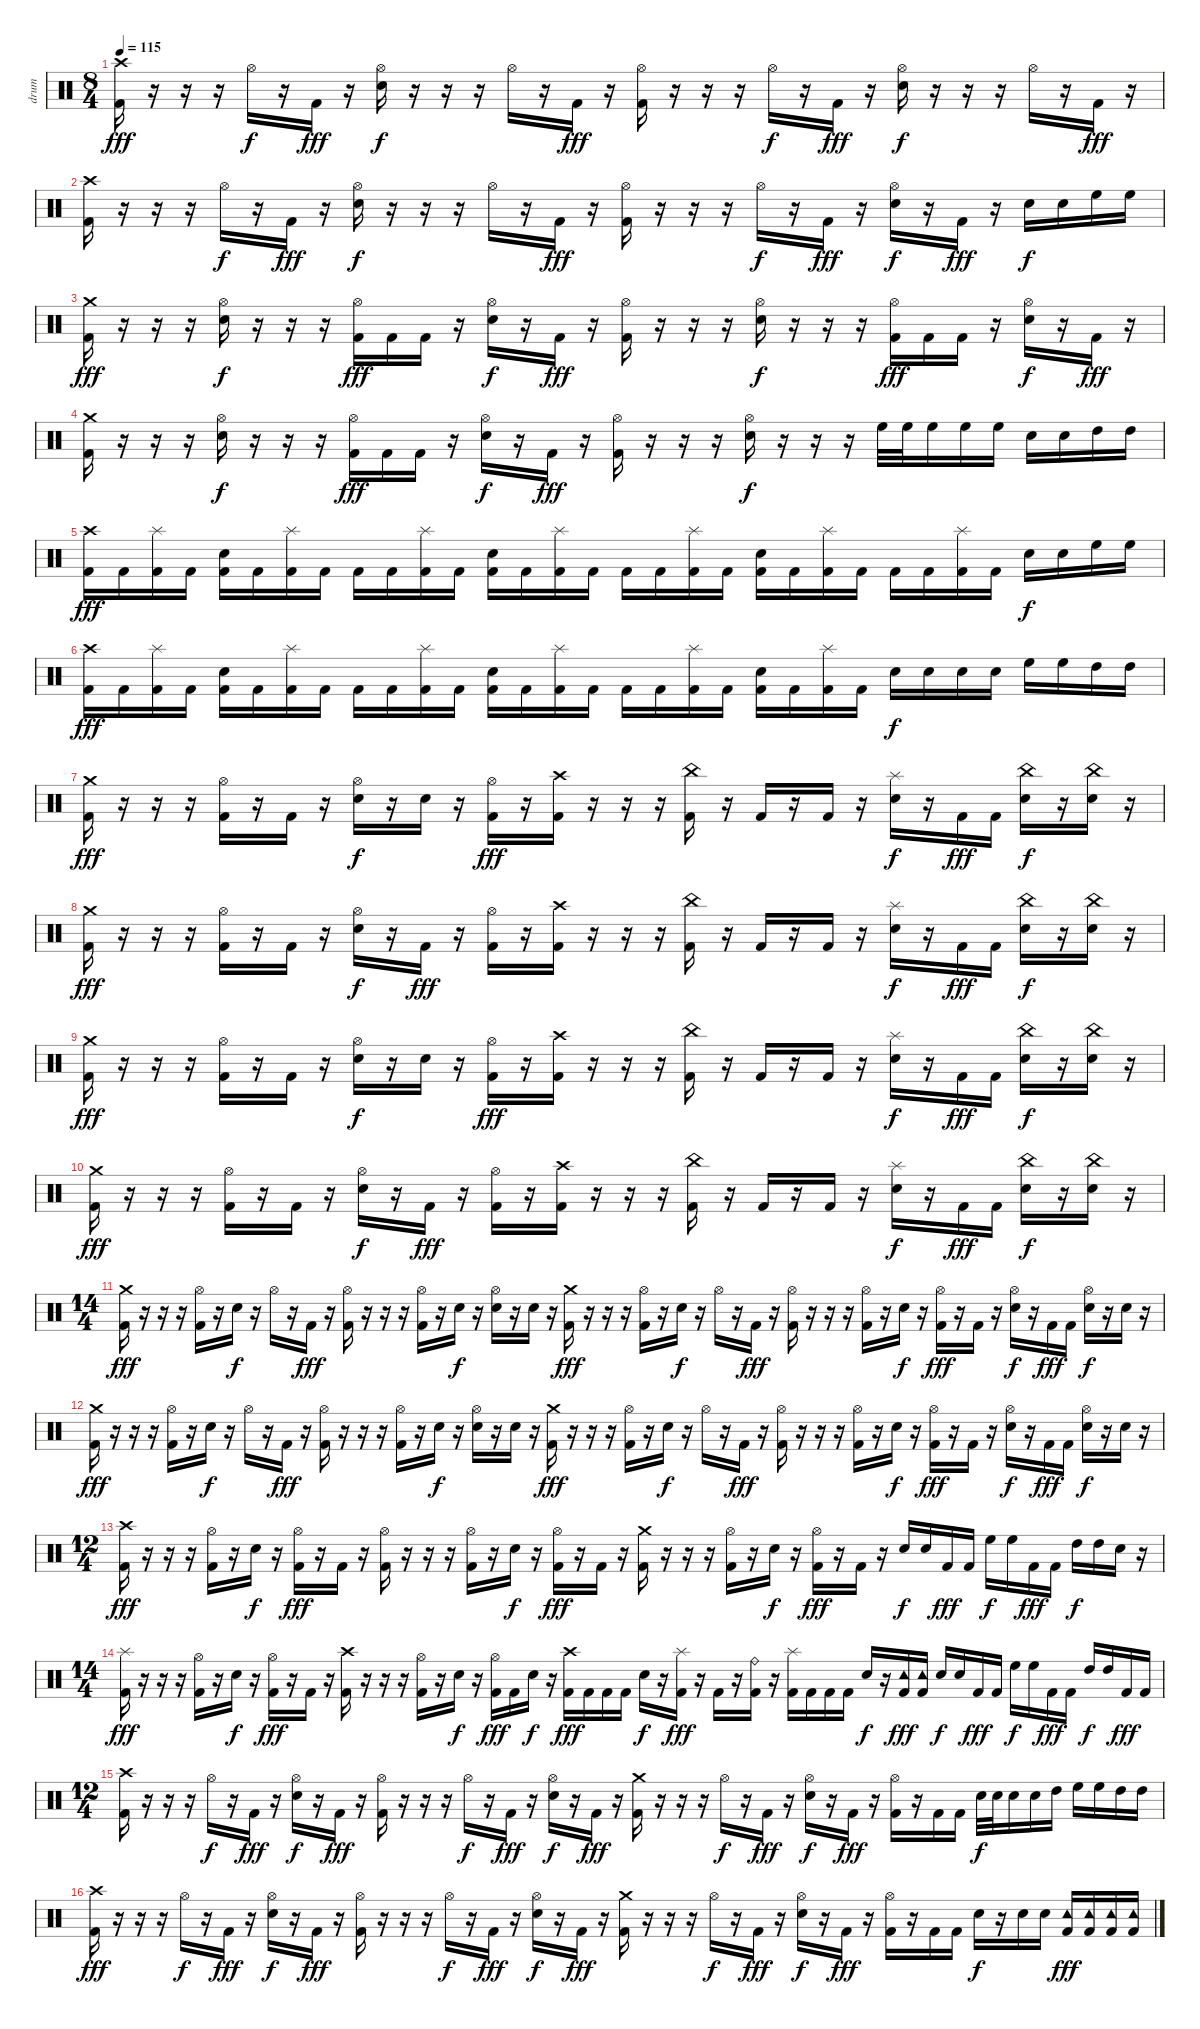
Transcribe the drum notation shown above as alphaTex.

\track ("drum" "drum") {instrument percussion}
\staff {score}
\articulation defaults
\ts (8 4)
\tempo 115
\clef neutral
\ks c
("Crash high (hit)" "Kick (hit) 2").16{dy fff} r.16 r.16 r.16 "Hi-Hat (open)".16{dy f} r.16 "Kick (hit) 2".16{dy fff} r.16 ("Hi-Hat (open)" "Electric Snare (hit)").16{dy f} r.16 r.16 r.16 "Hi-Hat (open)".16 r.16 "Kick (hit) 2".16{dy fff} r.16 ("Hi-Hat (open)" "Kick (hit) 2").16 r.16 r.16 r.16 "Hi-Hat (open)".16{dy f} r.16 "Kick (hit) 2".16{dy fff} r.16 ("Hi-Hat (open)" "Electric Snare (hit)").16{dy f} r.16 r.16 r.16 "Hi-Hat (open)".16 r.16 "Kick (hit) 2".16{dy fff} r.16 |
("Crash high (hit)" "Kick (hit) 2").16 r.16 r.16 r.16 "Hi-Hat (open)".16{dy f} r.16 "Kick (hit) 2".16{dy fff} r.16 ("Hi-Hat (open)" "Electric Snare (hit)").16{dy f} r.16 r.16 r.16 "Hi-Hat (open)".16 r.16 "Kick (hit) 2".16{dy fff} r.16 ("Hi-Hat (open)" "Kick (hit) 2").16 r.16 r.16 r.16 "Hi-Hat (open)".16{dy f} r.16 "Kick (hit) 2".16{dy fff} r.16 ("Hi-Hat (open)" "Electric Snare (hit)").16{dy f} r.16 "Kick (hit) 2".16{dy fff} r.16 "Electric Snare (hit)".16{dy f} "Electric Snare (hit)".16 "High Floor Tom (hit)".16 "High Floor Tom (hit)".16 |
("Crash medium (hit)" "Kick (hit) 2").16{dy fff} r.16 r.16 r.16 ("Hi-Hat (open)" "Electric Snare (hit)").16{dy f} r.16 r.16 r.16 ("Hi-Hat (open)" "Kick (hit) 2").16{dy fff} "Kick (hit) 2".16 "Kick (hit) 2".16 r.16 ("Hi-Hat (open)" "Electric Snare (hit)").16{dy f} r.16 "Kick (hit) 2".16{dy fff} r.16 ("Hi-Hat (open)" "Kick (hit) 2").16 r.16 r.16 r.16 ("Hi-Hat (open)" "Electric Snare (hit)").16{dy f} r.16 r.16 r.16 ("Hi-Hat (open)" "Kick (hit) 2").16{dy fff} "Kick (hit) 2".16 "Kick (hit) 2".16 r.16 ("Hi-Hat (open)" "Electric Snare (hit)").16{dy f} r.16 "Kick (hit) 2".16{dy fff} r.16 |
("Crash medium (hit)" "Kick (hit) 2").16 r.16 r.16 r.16 ("Hi-Hat (open)" "Electric Snare (hit)").16{dy f} r.16 r.16 r.16 ("Hi-Hat (open)" "Kick (hit) 2").16{dy fff} "Kick (hit) 2".16 "Kick (hit) 2".16 r.16 ("Hi-Hat (open)" "Electric Snare (hit)").16{dy f} r.16 "Kick (hit) 2".16{dy fff} r.16 ("Hi-Hat (open)" "Kick (hit) 2").16 r.16 r.16 r.16 ("Hi-Hat (open)" "Electric Snare (hit)").16{dy f} r.16 r.16 r.16 "High Floor Tom (hit)".32 "High Floor Tom (hit)".32 "High Floor Tom (hit)".16 "High Floor Tom (hit)".16 "High Floor Tom (hit)".16 "Electric Snare (hit)".16 "Electric Snare (hit)".16 "High Tom (hit)".16 "High Tom (hit)".16 |
("Crash high (hit)" "Kick (hit) 2").16{dy fff} "Kick (hit) 2".16 ("Splash (hit)" "Kick (hit) 2").16 "Kick (hit) 2".16 ("Electric Snare (hit)" "Kick (hit) 2").16 "Kick (hit) 2".16 ("Splash (hit)" "Kick (hit) 2").16 "Kick (hit) 2".16 "Kick (hit) 2".16 "Kick (hit) 2".16 ("Splash (hit)" "Kick (hit) 2").16 "Kick (hit) 2".16 ("Electric Snare (hit)" "Kick (hit) 2").16 "Kick (hit) 2".16 ("Splash (hit)" "Kick (hit) 2").16 "Kick (hit) 2".16 "Kick (hit) 2".16 "Kick (hit) 2".16 ("Splash (hit)" "Kick (hit) 2").16 "Kick (hit) 2".16 ("Electric Snare (hit)" "Kick (hit) 2").16 "Kick (hit) 2".16 ("Splash (hit)" "Kick (hit) 2").16 "Kick (hit) 2".16 "Kick (hit) 2".16 "Kick (hit) 2".16 ("Splash (hit)" "Kick (hit) 2").16 "Kick (hit) 2".16 "Electric Snare (hit)".16{dy f} "Electric Snare (hit)".16 "High Floor Tom (hit)".16 "High Floor Tom (hit)".16 |
("Crash high (hit)" "Kick (hit) 2").16{dy fff} "Kick (hit) 2".16 ("Splash (hit)" "Kick (hit) 2").16 "Kick (hit) 2".16 ("Electric Snare (hit)" "Kick (hit) 2").16 "Kick (hit) 2".16 ("Splash (hit)" "Kick (hit) 2").16 "Kick (hit) 2".16 "Kick (hit) 2".16 "Kick (hit) 2".16 ("Splash (hit)" "Kick (hit) 2").16 "Kick (hit) 2".16 ("Electric Snare (hit)" "Kick (hit) 2").16 "Kick (hit) 2".16 ("Splash (hit)" "Kick (hit) 2").16 "Kick (hit) 2".16 "Kick (hit) 2".16 "Kick (hit) 2".16 ("Splash (hit)" "Kick (hit) 2").16 "Kick (hit) 2".16 ("Electric Snare (hit)" "Kick (hit) 2").16 "Kick (hit) 2".16 ("Splash (hit)" "Kick (hit) 2").16 "Kick (hit) 2".16 "Electric Snare (hit)".16{dy f} "Electric Snare (hit)".16 "Electric Snare (hit)".16 "Electric Snare (hit)".16 "High Floor Tom (hit)".16 "High Floor Tom (hit)".16 "High Tom (hit)".16 "High Tom (hit)".16 |
("Crash medium (hit)" "Kick (hit) 2").16{dy fff} r.16 r.16 r.16 ("Hi-Hat (open)" "Kick (hit) 2").16 r.16 "Kick (hit) 2".16 r.16 ("Hi-Hat (open)" "Electric Snare (hit)").16{dy f} r.16 "Electric Snare (hit)".16 r.16 ("Hi-Hat (open)" "Kick (hit) 2").16{dy fff} r.16 ("Crash high (hit)" "Kick (hit) 2").16 r.16 r.16 r.16 ("China (hit)" "Kick (hit) 2").16 r.16 "Kick (hit) 2".16 r.16 "Kick (hit) 2".16 r.16 ("Splash (hit)" "Electric Snare (hit)").16{dy f} r.16 "Kick (hit) 2".16{dy fff} "Kick (hit) 2".16 ("China (hit)" "Electric Snare (hit)").16{dy f} r.16 ("China (hit)" "Electric Snare (hit)").16 r.16 |
("Crash medium (hit)" "Kick (hit) 2").16{dy fff} r.16 r.16 r.16 ("Hi-Hat (open)" "Kick (hit) 2").16 r.16 "Kick (hit) 2".16 r.16 ("Hi-Hat (open)" "Electric Snare (hit)").16{dy f} r.16 "Kick (hit) 2".16{dy fff} r.16 ("Hi-Hat (open)" "Kick (hit) 2").16 r.16 ("Crash high (hit)" "Kick (hit) 2").16 r.16 r.16 r.16 ("China (hit)" "Kick (hit) 2").16 r.16 "Kick (hit) 2".16 r.16 "Kick (hit) 2".16 r.16 ("Splash (hit)" "Electric Snare (hit)").16{dy f} r.16 "Kick (hit) 2".16{dy fff} "Kick (hit) 2".16 ("China (hit)" "Electric Snare (hit)").16{dy f} r.16 ("China (hit)" "Electric Snare (hit)").16 r.16 |
("Crash medium (hit)" "Kick (hit) 2").16{dy fff} r.16 r.16 r.16 ("Hi-Hat (open)" "Kick (hit) 2").16 r.16 "Kick (hit) 2".16 r.16 ("Hi-Hat (open)" "Electric Snare (hit)").16{dy f} r.16 "Electric Snare (hit)".16 r.16 ("Hi-Hat (open)" "Kick (hit) 2").16{dy fff} r.16 ("Crash high (hit)" "Kick (hit) 2").16 r.16 r.16 r.16 ("China (hit)" "Kick (hit) 2").16 r.16 "Kick (hit) 2".16 r.16 "Kick (hit) 2".16 r.16 ("Splash (hit)" "Electric Snare (hit)").16{dy f} r.16 "Kick (hit) 2".16{dy fff} "Kick (hit) 2".16 ("China (hit)" "Electric Snare (hit)").16{dy f} r.16 ("China (hit)" "Electric Snare (hit)").16 r.16 |
("Crash medium (hit)" "Kick (hit) 2").16{dy fff} r.16 r.16 r.16 ("Hi-Hat (open)" "Kick (hit) 2").16 r.16 "Kick (hit) 2".16 r.16 ("Hi-Hat (open)" "Electric Snare (hit)").16{dy f} r.16 "Kick (hit) 2".16{dy fff} r.16 ("Hi-Hat (open)" "Kick (hit) 2").16 r.16 ("Crash high (hit)" "Kick (hit) 2").16 r.16 r.16 r.16 ("China (hit)" "Kick (hit) 2").16 r.16 "Kick (hit) 2".16 r.16 "Kick (hit) 2".16 r.16 ("Splash (hit)" "Electric Snare (hit)").16{dy f} r.16 "Kick (hit) 2".16{dy fff} "Kick (hit) 2".16 ("China (hit)" "Electric Snare (hit)").16{dy f} r.16 ("China (hit)" "Electric Snare (hit)").16 r.16 |
\ts (14 4)
("Crash medium (hit)" "Kick (hit) 2").16{dy fff} r.16 r.16 r.16 ("Hi-Hat (open)" "Kick (hit) 2").16 r.16 "Electric Snare (hit)".16{dy f} r.16 "Hi-Hat (open)".16 r.16 "Kick (hit) 2".16{dy fff} r.16 ("Hi-Hat (open)" "Kick (hit) 2").16 r.16 r.16 r.16 ("Hi-Hat (open)" "Kick (hit) 2").16 r.16 "Electric Snare (hit)".16{dy f} r.16 ("Hi-Hat (open)" "Electric Snare (hit)").16 r.16 "Electric Snare (hit)".16 r.16 ("Crash medium (hit)" "Kick (hit) 2").16{dy fff} r.16 r.16 r.16 ("Hi-Hat (open)" "Kick (hit) 2").16 r.16 "Electric Snare (hit)".16{dy f} r.16 "Hi-Hat (open)".16 r.16 "Kick (hit) 2".16{dy fff} r.16 ("Hi-Hat (open)" "Kick (hit) 2").16 r.16 r.16 r.16 ("Hi-Hat (open)" "Kick (hit) 2").16 r.16 "Electric Snare (hit)".16{dy f} r.16 ("Hi-Hat (open)" "Kick (hit) 2").16{dy fff} r.16 "Kick (hit) 2".16 r.16 ("Hi-Hat (open)" "Electric Snare (hit)").16{dy f} r.16 "Kick (hit) 2".16{dy fff} "Kick (hit) 2".16 ("Hi-Hat (open)" "Electric Snare (hit)").16{dy f} r.16 "Electric Snare (hit)".16 r.16 |
("Crash medium (hit)" "Kick (hit) 2").16{dy fff} r.16 r.16 r.16 ("Hi-Hat (open)" "Kick (hit) 2").16 r.16 "Electric Snare (hit)".16{dy f} r.16 "Hi-Hat (open)".16 r.16 "Kick (hit) 2".16{dy fff} r.16 ("Hi-Hat (open)" "Kick (hit) 2").16 r.16 r.16 r.16 ("Hi-Hat (open)" "Kick (hit) 2").16 r.16 "Electric Snare (hit)".16{dy f} r.16 ("Hi-Hat (open)" "Electric Snare (hit)").16 r.16 "Electric Snare (hit)".16 r.16 ("Crash medium (hit)" "Kick (hit) 2").16{dy fff} r.16 r.16 r.16 ("Hi-Hat (open)" "Kick (hit) 2").16 r.16 "Electric Snare (hit)".16{dy f} r.16 "Hi-Hat (open)".16 r.16 "Kick (hit) 2".16{dy fff} r.16 ("Hi-Hat (open)" "Kick (hit) 2").16 r.16 r.16 r.16 ("Hi-Hat (open)" "Kick (hit) 2").16 r.16 "Electric Snare (hit)".16{dy f} r.16 ("Hi-Hat (open)" "Kick (hit) 2").16{dy fff} r.16 "Kick (hit) 2".16 r.16 ("Hi-Hat (open)" "Electric Snare (hit)").16{dy f} r.16 "Kick (hit) 2".16{dy fff} "Kick (hit) 2".16 ("Hi-Hat (open)" "Electric Snare (hit)").16{dy f} r.16 "Electric Snare (hit)".16 r.16 |
\ts (12 4)
("Crash high (hit)" "Kick (hit) 2").16{dy fff} r.16 r.16 r.16 ("Hi-Hat (open)" "Kick (hit) 2").16 r.16 "Electric Snare (hit)".16{dy f} r.16 ("Hi-Hat (open)" "Kick (hit) 2").16{dy fff} r.16 "Kick (hit) 2".16 r.16 ("Hi-Hat (open)" "Kick (hit) 2").16 r.16 r.16 r.16 ("Hi-Hat (open)" "Kick (hit) 2").16 r.16 "Electric Snare (hit)".16{dy f} r.16 ("Hi-Hat (open)" "Kick (hit) 2").16{dy fff} r.16 "Kick (hit) 2".16 r.16 ("Crash medium (hit)" "Kick (hit) 2").16 r.16 r.16 r.16 ("Hi-Hat (open)" "Kick (hit) 2").16 r.16 "Electric Snare (hit)".16{dy f} r.16 ("Hi-Hat (open)" "Kick (hit) 2").16{dy fff} r.16 "Kick (hit) 2".16 r.16 "Electric Snare (hit)".16{dy f} "Electric Snare (hit)".16 "Kick (hit) 2".16{dy fff} "Kick (hit) 2".16 "High Floor Tom (hit)".16{dy f} "High Floor Tom (hit)".16 "Kick (hit) 2".16{dy fff} "Kick (hit) 2".16 "High Tom (hit)".16{dy f} "High Tom (hit)".16 "Electric Snare (hit)".16 r.16 |
\ts (14 4)
("Splash (hit)" "Kick (hit) 2").16{dy fff} r.16 r.16 r.16 ("Hi-Hat (open)" "Kick (hit) 2").16 r.16 "Electric Snare (hit)".16{dy f} r.16 ("Hi-Hat (open)" "Kick (hit) 2").16{dy fff} r.16 "Kick (hit) 2".16 r.16 ("Crash high (hit)" "Kick (hit) 2").16 r.16 r.16 r.16 ("Hi-Hat (open)" "Kick (hit) 2").16 r.16 "Electric Snare (hit)".16{dy f} r.16 ("Hi-Hat (open)" "Kick (hit) 2").16{dy fff} "Kick (hit) 2".16 "Electric Snare (hit)".16{dy f} r.16 ("Crash high (hit)" "Kick (hit) 2").16{dy fff} "Kick (hit) 2".16 "Kick (hit) 2".16 "Kick (hit) 2".16 "Electric Snare (hit)".16{dy f} r.16 ("Splash (hit)" "Kick (hit) 2").16{dy fff} r.16 "Kick (hit) 2".16 r.16 ("Ride (bell)" "Kick (hit) 2").16 r.16 ("Splash (hit)" "Kick (hit) 2").16 "Kick (hit) 2".16 "Kick (hit) 2".16 "Kick (hit) 2".16 "Electric Snare (hit)".16{dy f} r.16 ("Tambourine (hit)" "Kick (hit) 2").16{dy fff} ("Tambourine (hit)" "Kick (hit) 2").16 "Electric Snare (hit)".16{dy f} "Electric Snare (hit)".16 "Kick (hit) 2".16{dy fff} "Kick (hit) 2".16 "High Floor Tom (hit)".16{dy f} "High Floor Tom (hit)".16 "Kick (hit) 2".16{dy fff} "Kick (hit) 2".16 "High Tom (hit)".16{dy f} "High Tom (hit)".16 "Kick (hit) 2".16{dy fff} "Kick (hit) 2".16 |
\ts (12 4)
("Crash high (hit)" "Kick (hit) 2").16 r.16 r.16 r.16 "Hi-Hat (open)".16{dy f} r.16 "Kick (hit) 2".16{dy fff} r.16 ("Hi-Hat (open)" "Electric Snare (hit)").16{dy f} r.16 "Kick (hit) 2".16{dy fff} r.16 ("Hi-Hat (open)" "Kick (hit) 2").16 r.16 r.16 r.16 "Hi-Hat (open)".16{dy f} r.16 "Kick (hit) 2".16{dy fff} r.16 ("Hi-Hat (open)" "Electric Snare (hit)").16{dy f} r.16 "Kick (hit) 2".16{dy fff} r.16 ("Crash medium (hit)" "Kick (hit) 2").16 r.16 r.16 r.16 "Hi-Hat (open)".16{dy f} r.16 "Kick (hit) 2".16{dy fff} r.16 ("Hi-Hat (open)" "Electric Snare (hit)").16{dy f} r.16 "Kick (hit) 2".16{dy fff} r.16 ("Hi-Hat (open)" "Kick (hit) 2").16 r.16 "Kick (hit) 2".16 "Kick (hit) 2".16 "Electric Snare (hit)".32{dy f} "Electric Snare (hit)".32 "Electric Snare (hit)".16 "Electric Snare (hit)".16 "High Tom (hit)".16 "High Floor Tom (hit)".16 "High Floor Tom (hit)".16 "High Tom (hit)".16 "High Tom (hit)".16 |
("Crash high (hit)" "Kick (hit) 2").16{dy fff} r.16 r.16 r.16 "Hi-Hat (open)".16{dy f} r.16 "Kick (hit) 2".16{dy fff} r.16 ("Hi-Hat (open)" "Electric Snare (hit)").16{dy f} r.16 "Kick (hit) 2".16{dy fff} r.16 ("Hi-Hat (open)" "Kick (hit) 2").16 r.16 r.16 r.16 "Hi-Hat (open)".16{dy f} r.16 "Kick (hit) 2".16{dy fff} r.16 ("Hi-Hat (open)" "Electric Snare (hit)").16{dy f} r.16 "Kick (hit) 2".16{dy fff} r.16 ("Crash medium (hit)" "Kick (hit) 2").16 r.16 r.16 r.16 "Hi-Hat (open)".16{dy f} r.16 "Kick (hit) 2".16{dy fff} r.16 ("Hi-Hat (open)" "Electric Snare (hit)").16{dy f} r.16 "Kick (hit) 2".16{dy fff} r.16 ("Hi-Hat (open)" "Kick (hit) 2").16 r.16 "Kick (hit) 2".16 "Kick (hit) 2".16 "Electric Snare (hit)".16{dy f} r.16 "Electric Snare (hit)".16 "Electric Snare (hit)".16 ("Tambourine (hit)" "Kick (hit) 2").16{dy fff} ("Tambourine (hit)" "Kick (hit) 2").16 ("Tambourine (hit)" "Kick (hit) 2").16 ("Tambourine (hit)" "Kick (hit) 2").16
